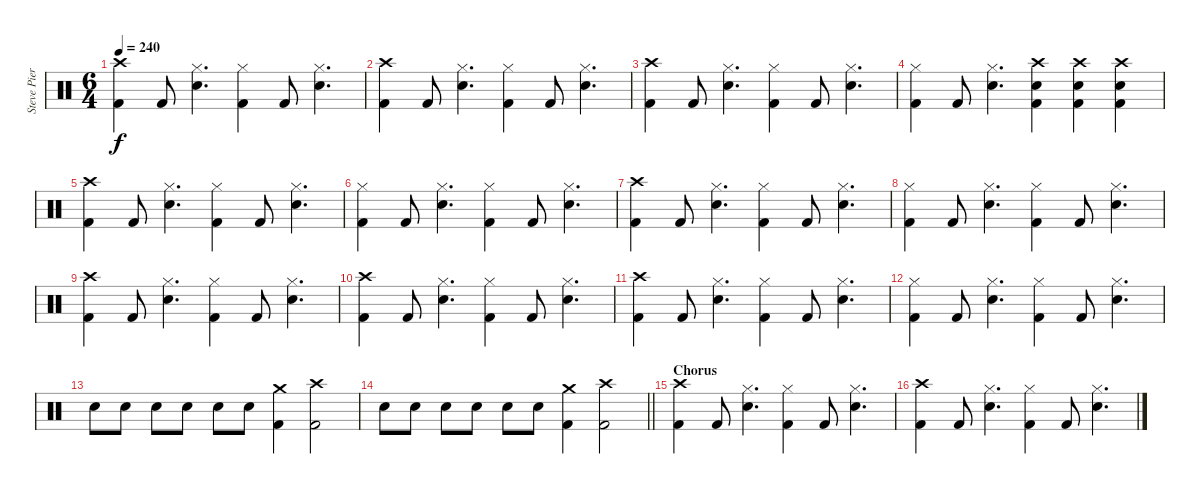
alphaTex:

\track ("Steve Pierce" "Steve Pier") {instrument percussion}
\staff {score}
\articulation defaults
\ts (6 4)
\tempo 240
\clef neutral
\ks c
("Crash high (hit)" "Kick (hit) 2").4{dy f} "Kick (hit) 2".8 ("Hi-Hat (closed)" "Snare (hit) 2").4{d} ("Hi-Hat (closed)" "Kick (hit) 2").4 "Kick (hit) 2".8 ("Hi-Hat (closed)" "Snare (hit) 2").4{d} |
("Crash high (hit)" "Kick (hit) 2").4 "Kick (hit) 2".8 ("Hi-Hat (closed)" "Snare (hit) 2").4{d} ("Hi-Hat (closed)" "Kick (hit) 2").4 "Kick (hit) 2".8 ("Hi-Hat (closed)" "Snare (hit) 2").4{d} |
("Crash high (hit)" "Kick (hit) 2").4 "Kick (hit) 2".8 ("Hi-Hat (closed)" "Snare (hit) 2").4{d} ("Hi-Hat (closed)" "Kick (hit) 2").4 "Kick (hit) 2".8 ("Hi-Hat (closed)" "Snare (hit) 2").4{d} |
("Hi-Hat (closed)" "Kick (hit) 2").4 "Kick (hit) 2".8 ("Hi-Hat (closed)" "Snare (hit) 2").4{d} ("Crash high (hit)" "Snare (hit) 2" "Kick (hit) 2").4 ("Crash high (hit)" "Snare (hit) 2" "Kick (hit) 2").4 ("Crash high (hit)" "Snare (hit) 2" "Kick (hit) 2").4 |
("Crash high (hit)" "Kick (hit) 2").4 "Kick (hit) 2".8 ("Hi-Hat (closed)" "Snare (hit) 2").4{d} ("Hi-Hat (closed)" "Kick (hit) 2").4 "Kick (hit) 2".8 ("Hi-Hat (closed)" "Snare (hit) 2").4{d} |
("Hi-Hat (closed)" "Kick (hit) 2").4 "Kick (hit) 2".8 ("Hi-Hat (closed)" "Snare (hit) 2").4{d} ("Hi-Hat (closed)" "Kick (hit) 2").4 "Kick (hit) 2".8 ("Hi-Hat (closed)" "Snare (hit) 2").4{d} |
("Crash high (hit)" "Kick (hit) 2").4 "Kick (hit) 2".8 ("Hi-Hat (closed)" "Snare (hit) 2").4{d} ("Hi-Hat (closed)" "Kick (hit) 2").4 "Kick (hit) 2".8 ("Hi-Hat (closed)" "Snare (hit) 2").4{d} |
("Hi-Hat (closed)" "Kick (hit) 2").4 "Kick (hit) 2".8 ("Hi-Hat (closed)" "Snare (hit) 2").4{d} ("Hi-Hat (closed)" "Kick (hit) 2").4 "Kick (hit) 2".8 ("Hi-Hat (closed)" "Snare (hit) 2").4{d} |
("Crash high (hit)" "Kick (hit) 2").4 "Kick (hit) 2".8 ("Hi-Hat (closed)" "Snare (hit) 2").4{d} ("Hi-Hat (closed)" "Kick (hit) 2").4 "Kick (hit) 2".8 ("Hi-Hat (closed)" "Snare (hit) 2").4{d} |
("Crash high (hit)" "Kick (hit) 2").4 "Kick (hit) 2".8 ("Hi-Hat (closed)" "Snare (hit) 2").4{d} ("Hi-Hat (closed)" "Kick (hit) 2").4 "Kick (hit) 2".8 ("Hi-Hat (closed)" "Snare (hit) 2").4{d} |
("Crash high (hit)" "Kick (hit) 2").4 "Kick (hit) 2".8 ("Hi-Hat (closed)" "Snare (hit) 2").4{d} ("Hi-Hat (closed)" "Kick (hit) 2").4 "Kick (hit) 2".8 ("Hi-Hat (closed)" "Snare (hit) 2").4{d} |
("Hi-Hat (closed)" "Kick (hit) 2").4 "Kick (hit) 2".8 ("Hi-Hat (closed)" "Snare (hit) 2").4{d} ("Hi-Hat (closed)" "Kick (hit) 2").4 "Kick (hit) 2".8 ("Hi-Hat (closed)" "Snare (hit) 2").4{d} |
"Snare (hit) 2".8 "Snare (hit) 2".8 "Snare (hit) 2".8 "Snare (hit) 2".8 "Snare (hit) 2".8 "Snare (hit) 2".8 ("Crash medium (hit)" "Kick (hit) 2").4 ("Crash high (hit)" "Kick (hit) 2").2 |
\barLineRight lightlight "Snare (hit) 2".8 "Snare (hit) 2".8 "Snare (hit) 2".8 "Snare (hit) 2".8 "Snare (hit) 2".8 "Snare (hit) 2".8
("Crash medium (hit)" "Kick (hit) 2").4 ("Crash high (hit)" "Kick (hit) 2").2 |
\section ("" "Chorus")
("Crash high (hit)" "Kick (hit) 2").4 "Kick (hit) 2".8 ("Hi-Hat (closed)" "Snare (hit) 2").4{d} ("Hi-Hat (closed)" "Kick (hit) 2").4 "Kick (hit) 2".8 ("Hi-Hat (closed)" "Snare (hit) 2").4{d} |
("Crash high (hit)" "Kick (hit) 2").4 "Kick (hit) 2".8 ("Hi-Hat (closed)" "Snare (hit) 2").4{d} ("Hi-Hat (closed)" "Kick (hit) 2").4 "Kick (hit) 2".8 ("Hi-Hat (closed)" "Snare (hit) 2").4{d}
